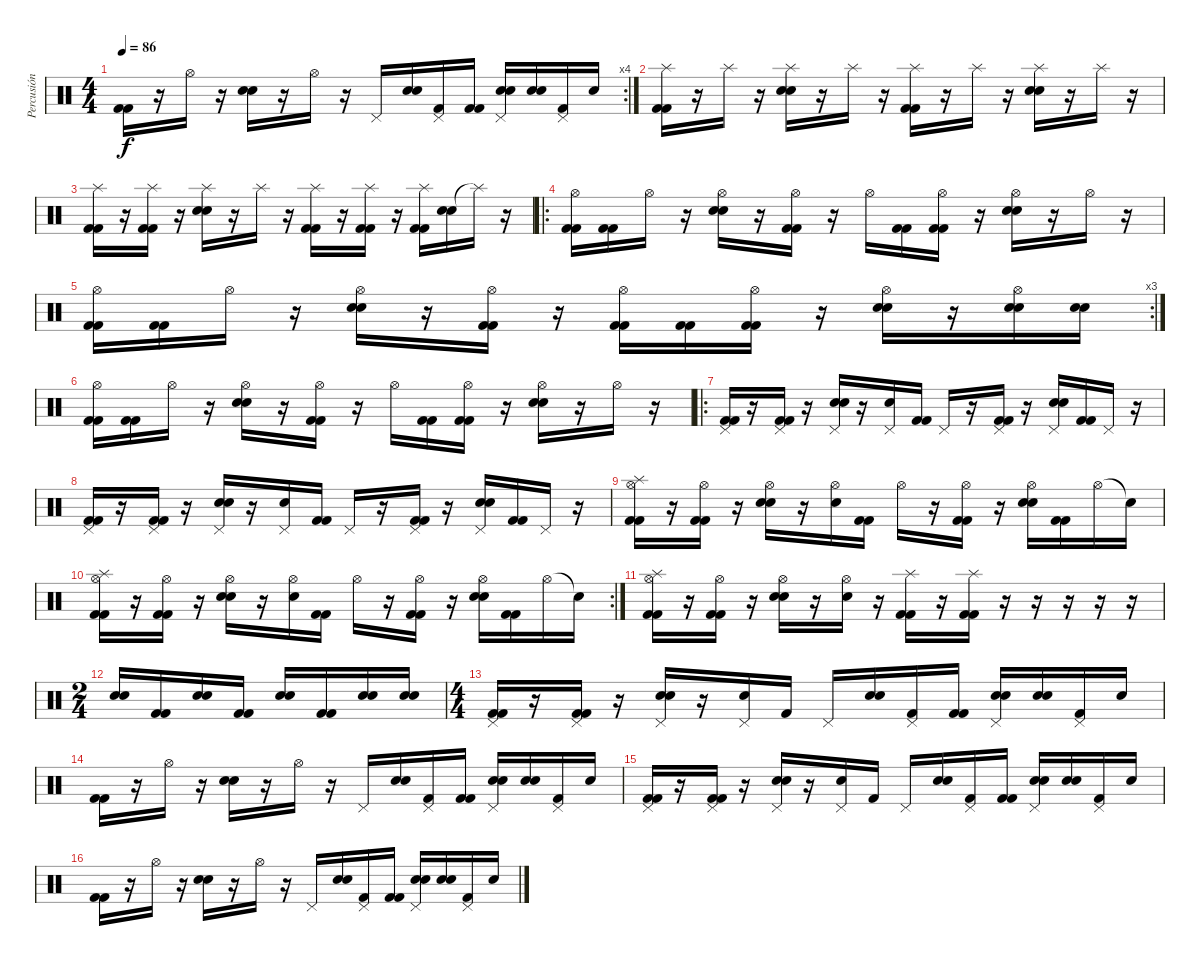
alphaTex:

\track ("Percusión" "Percusión") {instrument percussion}
\staff {score}
\articulation defaults
\rc 4
\ts (4 4)
\tempo 86
\clef neutral
\ks c
("Kick (hit) 2" "Kick (hit) 2").16{dy f} r.16 "Hi-Hat (open)".16 r.16 ("Electric Snare (hit)" "Electric Snare (hit)").16 r.16 "Hi-Hat (open)".16 r.16 "Pedal Hi-Hat (hit)".16 ("Electric Snare (hit)" "Electric Snare (hit)").16 ("Pedal Hi-Hat (hit)" "Kick (hit) 2").16 ("Kick (hit) 2" "Kick (hit) 2").16 ("Pedal Hi-Hat (hit)" "Electric Snare (hit)" "Electric Snare (hit)").16 ("Electric Snare (hit)" "Electric Snare (hit)").16 ("Pedal Hi-Hat (hit)" "Kick (hit) 2").16 "Electric Snare (hit)".16 |
("Splash (hit)" "Kick (hit) 2" "Kick (hit) 2").16 r.16 "Splash (hit)".16 r.16 ("Splash (hit)" "Electric Snare (hit)" "Electric Snare (hit)").16 r.16 "Splash (hit)".16 r.16 ("Splash (hit)" "Kick (hit) 2" "Kick (hit) 2").16 r.16 "Splash (hit)".16 r.16 ("Splash (hit)" "Electric Snare (hit)" "Electric Snare (hit)").16 r.16 "Splash (hit)".16 r.16 |
("Splash (hit)" "Kick (hit) 2" "Kick (hit) 2").16 r.16 ("Splash (hit)" "Kick (hit) 2" "Kick (hit) 2").16 r.16 ("Splash (hit)" "Electric Snare (hit)" "Electric Snare (hit)").16 r.16 "Splash (hit)".16 r.16 ("Splash (hit)" "Kick (hit) 2" "Kick (hit) 2").16 r.16 ("Splash (hit)" "Kick (hit) 2" "Kick (hit) 2").16 r.16 ("Splash (hit)" "Kick (hit) 2" "Kick (hit) 2").16 ("Electric Snare (hit)" "Electric Snare (hit)").16 "Splash (hit)"{t}.16 r.16 |
\ro
("Hi-Hat (open)" "Kick (hit) 2" "Kick (hit) 2").16 ("Kick (hit) 2" "Kick (hit) 2").16 "Hi-Hat (open)".16 r.16 ("Hi-Hat (open)" "Electric Snare (hit)" "Electric Snare (hit)").16 r.16 ("Hi-Hat (open)" "Kick (hit) 2" "Kick (hit) 2").16 r.16 "Hi-Hat (open)".16 ("Kick (hit) 2" "Kick (hit) 2").16 ("Hi-Hat (open)" "Kick (hit) 2" "Kick (hit) 2").16 r.16 ("Hi-Hat (open)" "Electric Snare (hit)" "Electric Snare (hit)").16 r.16 "Hi-Hat (open)".16 r.16 |
\rc 3
("Hi-Hat (open)" "Kick (hit) 2" "Kick (hit) 2").16 ("Kick (hit) 2" "Kick (hit) 2").16 "Hi-Hat (open)".16 r.16 ("Hi-Hat (open)" "Electric Snare (hit)" "Electric Snare (hit)").16 r.16 ("Hi-Hat (open)" "Kick (hit) 2" "Kick (hit) 2").16 r.16 ("Hi-Hat (open)" "Kick (hit) 2" "Kick (hit) 2").16 ("Kick (hit) 2" "Kick (hit) 2").16 ("Hi-Hat (open)" "Kick (hit) 2" "Kick (hit) 2").16 r.16 ("Hi-Hat (open)" "Electric Snare (hit)" "Electric Snare (hit)").16 r.16 ("Hi-Hat (open)" "Electric Snare (hit)" "Electric Snare (hit)").16 ("Electric Snare (hit)" "Electric Snare (hit)").16 |
("Hi-Hat (open)" "Kick (hit) 2" "Kick (hit) 2").16 ("Kick (hit) 2" "Kick (hit) 2").16 "Hi-Hat (open)".16 r.16 ("Hi-Hat (open)" "Electric Snare (hit)" "Electric Snare (hit)").16 r.16 ("Hi-Hat (open)" "Kick (hit) 2" "Kick (hit) 2").16 r.16 "Hi-Hat (open)".16 ("Kick (hit) 2" "Kick (hit) 2").16 ("Hi-Hat (open)" "Kick (hit) 2" "Kick (hit) 2").16 r.16 ("Hi-Hat (open)" "Electric Snare (hit)" "Electric Snare (hit)").16 r.16 "Hi-Hat (open)".16 r.16 |
\ro
("Pedal Hi-Hat (hit)" "Kick (hit) 2" "Kick (hit) 2").16 r.16 ("Pedal Hi-Hat (hit)" "Kick (hit) 2" "Kick (hit) 2").16 r.16 ("Pedal Hi-Hat (hit)" "Electric Snare (hit)" "Electric Snare (hit)").16 r.16 ("Pedal Hi-Hat (hit)" "Electric Snare (hit)").16 ("Kick (hit) 2" "Kick (hit) 2").16 "Pedal Hi-Hat (hit)".16 r.16 ("Pedal Hi-Hat (hit)" "Kick (hit) 2" "Kick (hit) 2").16 r.16 ("Pedal Hi-Hat (hit)" "Electric Snare (hit)" "Electric Snare (hit)").16 ("Kick (hit) 2" "Kick (hit) 2").16 "Pedal Hi-Hat (hit)".16 r.16 |
("Pedal Hi-Hat (hit)" "Kick (hit) 2" "Kick (hit) 2").16 r.16 ("Pedal Hi-Hat (hit)" "Kick (hit) 2" "Kick (hit) 2").16 r.16 ("Pedal Hi-Hat (hit)" "Electric Snare (hit)" "Electric Snare (hit)").16 r.16 ("Pedal Hi-Hat (hit)" "Electric Snare (hit)").16 ("Kick (hit) 2" "Kick (hit) 2").16 "Pedal Hi-Hat (hit)".16 r.16 ("Pedal Hi-Hat (hit)" "Kick (hit) 2" "Kick (hit) 2").16 r.16 ("Pedal Hi-Hat (hit)" "Electric Snare (hit)" "Electric Snare (hit)").16 ("Kick (hit) 2" "Kick (hit) 2").16 "Pedal Hi-Hat (hit)".16 r.16 |
("Hi-Hat (open)" "Splash (hit)" "Kick (hit) 2" "Kick (hit) 2").16 r.16 ("Hi-Hat (open)" "Kick (hit) 2" "Kick (hit) 2").16 r.16 ("Hi-Hat (open)" "Electric Snare (hit)" "Electric Snare (hit)").16 r.16 ("Hi-Hat (open)" "Electric Snare (hit)").16 ("Kick (hit) 2" "Kick (hit) 2").16 "Hi-Hat (open)".16 r.16 ("Hi-Hat (open)" "Kick (hit) 2" "Kick (hit) 2").16 r.16 ("Hi-Hat (open)" "Electric Snare (hit)" "Electric Snare (hit)").16 ("Kick (hit) 2" "Kick (hit) 2").16 "Hi-Hat (open)".16 "Snare (hit)"{t}.16 |
\rc 2
("Hi-Hat (open)" "Splash (hit)" "Kick (hit) 2" "Kick (hit) 2").16 r.16 ("Hi-Hat (open)" "Kick (hit) 2" "Kick (hit) 2").16 r.16 ("Hi-Hat (open)" "Electric Snare (hit)" "Electric Snare (hit)").16 r.16 ("Hi-Hat (open)" "Electric Snare (hit)").16 ("Kick (hit) 2" "Kick (hit) 2").16 "Hi-Hat (open)".16 r.16 ("Hi-Hat (open)" "Kick (hit) 2" "Kick (hit) 2").16 r.16 ("Hi-Hat (open)" "Electric Snare (hit)" "Electric Snare (hit)").16 ("Kick (hit) 2" "Kick (hit) 2").16 "Hi-Hat (open)".16 "Snare (hit)"{t}.16 |
("Hi-Hat (open)" "Splash (hit)" "Kick (hit) 2" "Kick (hit) 2").16 r.16 ("Hi-Hat (open)" "Kick (hit) 2" "Kick (hit) 2").16 r.16 ("Hi-Hat (open)" "Electric Snare (hit)" "Electric Snare (hit)").16 r.16 ("Hi-Hat (open)" "Electric Snare (hit)").16 r.16 ("Splash (hit)" "Kick (hit) 2" "Kick (hit) 2").16 r.16 ("Splash (hit)" "Kick (hit) 2" "Kick (hit) 2").16 r.16 r.16 r.16 r.16 r.16 |
\ts (2 4)
("Electric Snare (hit)" "Electric Snare (hit)").16 ("Kick (hit) 2" "Kick (hit) 2").16 ("Electric Snare (hit)" "Electric Snare (hit)").16 ("Kick (hit) 2" "Kick (hit) 2").16 ("Electric Snare (hit)" "Electric Snare (hit)").16 ("Kick (hit) 2" "Kick (hit) 2").16 ("Electric Snare (hit)" "Electric Snare (hit)").16 ("Electric Snare (hit)" "Electric Snare (hit)").16 |
\ts (4 4)
("Pedal Hi-Hat (hit)" "Kick (hit) 2" "Kick (hit) 2").16 r.16 ("Pedal Hi-Hat (hit)" "Kick (hit) 2" "Kick (hit) 2").16 r.16 ("Pedal Hi-Hat (hit)" "Electric Snare (hit)" "Electric Snare (hit)").16 r.16 ("Pedal Hi-Hat (hit)" "Electric Snare (hit)").16 "Kick (hit) 2".16 "Pedal Hi-Hat (hit)".16 ("Electric Snare (hit)" "Electric Snare (hit)").16 ("Pedal Hi-Hat (hit)" "Kick (hit) 2").16 ("Kick (hit) 2" "Kick (hit) 2").16 ("Pedal Hi-Hat (hit)" "Electric Snare (hit)" "Electric Snare (hit)").16 ("Electric Snare (hit)" "Electric Snare (hit)").16 ("Pedal Hi-Hat (hit)" "Kick (hit) 2").16 "Electric Snare (hit)".16 |
("Kick (hit) 2" "Kick (hit) 2").16 r.16 "Hi-Hat (open)".16 r.16 ("Electric Snare (hit)" "Electric Snare (hit)").16 r.16 "Hi-Hat (open)".16 r.16 "Pedal Hi-Hat (hit)".16 ("Electric Snare (hit)" "Electric Snare (hit)").16 ("Pedal Hi-Hat (hit)" "Kick (hit) 2").16 ("Kick (hit) 2" "Kick (hit) 2").16 ("Pedal Hi-Hat (hit)" "Electric Snare (hit)" "Electric Snare (hit)").16 ("Electric Snare (hit)" "Electric Snare (hit)").16 ("Pedal Hi-Hat (hit)" "Kick (hit) 2").16 "Electric Snare (hit)".16 |
("Pedal Hi-Hat (hit)" "Kick (hit) 2" "Kick (hit) 2").16 r.16 ("Pedal Hi-Hat (hit)" "Kick (hit) 2" "Kick (hit) 2").16 r.16 ("Pedal Hi-Hat (hit)" "Electric Snare (hit)" "Electric Snare (hit)").16 r.16 ("Pedal Hi-Hat (hit)" "Electric Snare (hit)").16 "Kick (hit) 2".16 "Pedal Hi-Hat (hit)".16 ("Electric Snare (hit)" "Electric Snare (hit)").16 ("Pedal Hi-Hat (hit)" "Kick (hit) 2").16 ("Kick (hit) 2" "Kick (hit) 2").16 ("Pedal Hi-Hat (hit)" "Electric Snare (hit)" "Electric Snare (hit)").16 ("Electric Snare (hit)" "Electric Snare (hit)").16 ("Pedal Hi-Hat (hit)" "Kick (hit) 2").16 "Electric Snare (hit)".16 |
("Kick (hit) 2" "Kick (hit) 2").16 r.16 "Hi-Hat (open)".16 r.16 ("Electric Snare (hit)" "Electric Snare (hit)").16 r.16 "Hi-Hat (open)".16 r.16 "Pedal Hi-Hat (hit)".16 ("Electric Snare (hit)" "Electric Snare (hit)").16 ("Pedal Hi-Hat (hit)" "Kick (hit) 2").16 ("Kick (hit) 2" "Kick (hit) 2").16 ("Pedal Hi-Hat (hit)" "Electric Snare (hit)" "Electric Snare (hit)").16 ("Electric Snare (hit)" "Electric Snare (hit)").16 ("Pedal Hi-Hat (hit)" "Kick (hit) 2").16 "Electric Snare (hit)".16
